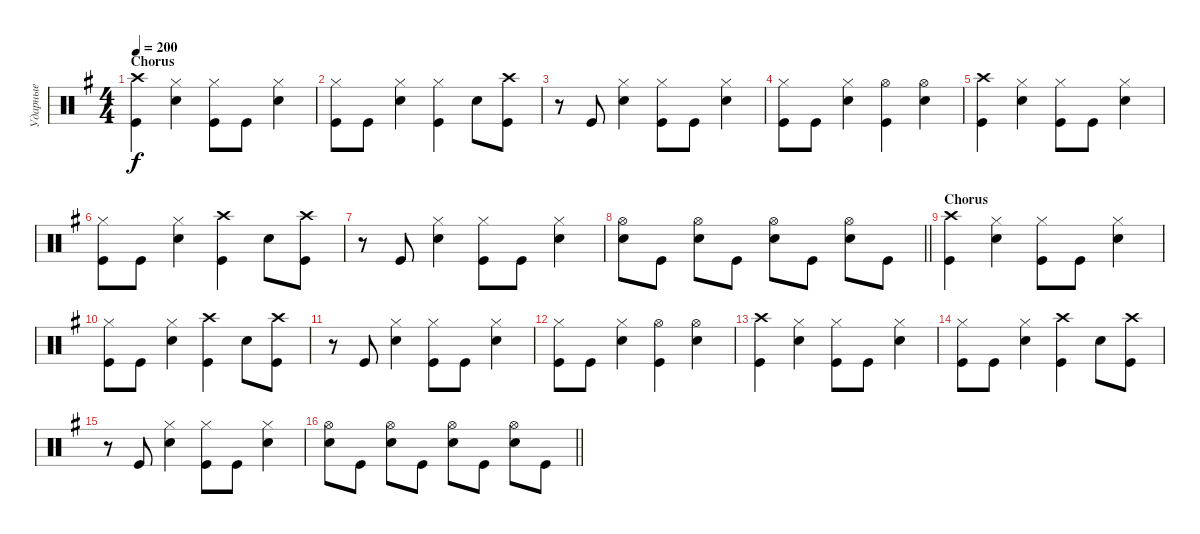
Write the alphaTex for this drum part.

\track ("Ударные" "Ударные") {instrument percussion}
\staff {score}
\articulation defaults
\ts (4 4)
\section ("" "Chorus")
\tempo 200
\clef neutral
\ks eminor
("Kick (hit)" "Crash high (hit)").4{dy f} ("Snare (hit) 2" "Hi-Hat (closed)").4 ("Kick (hit)" "Hi-Hat (closed)").8 "Kick (hit)".8 ("Snare (hit) 2" "Hi-Hat (closed)").4 |
("Kick (hit)" "Hi-Hat (closed)").8 "Kick (hit)".8 ("Snare (hit) 2" "Hi-Hat (closed)").4 ("Kick (hit)" "Hi-Hat (closed)").4 "Snare (hit) 2".8 ("Crash high (hit)" "Kick (hit)").8 |
r.8 "Kick (hit)".8 ("Snare (hit) 2" "Hi-Hat (closed)").4 ("Kick (hit)" "Hi-Hat (closed)").8 "Kick (hit)".8 ("Snare (hit) 2" "Hi-Hat (closed)").4 |
("Kick (hit)" "Hi-Hat (closed)").8 "Kick (hit)".8 ("Snare (hit) 2" "Hi-Hat (closed)").4 ("Kick (hit)" "Hi-Hat (open)").4 ("Snare (hit) 2" "Hi-Hat (open)").4 |
("Kick (hit)" "Crash high (hit)").4 ("Snare (hit) 2" "Hi-Hat (closed)").4 ("Kick (hit)" "Hi-Hat (closed)").8 "Kick (hit)".8 ("Snare (hit) 2" "Hi-Hat (closed)").4 |
("Kick (hit)" "Hi-Hat (closed)").8 "Kick (hit)".8 ("Snare (hit) 2" "Hi-Hat (closed)").4 ("Kick (hit)" "Crash high (hit)").4 "Snare (hit) 2".8 ("Crash high (hit)" "Kick (hit)").8 |
r.8 "Kick (hit)".8 ("Snare (hit) 2" "Hi-Hat (closed)").4 ("Kick (hit)" "Hi-Hat (closed)").8 "Kick (hit)".8 ("Snare (hit) 2" "Hi-Hat (closed)").4 |
\barLineRight lightlight
("Snare (hit) 2" "Hi-Hat (open)").8 "Kick (hit)".8 ("Snare (hit) 2" "Hi-Hat (open)").8 "Kick (hit)".8 ("Snare (hit) 2" "Hi-Hat (open)").8 "Kick (hit)".8 ("Snare (hit) 2" "Hi-Hat (open)").8 "Kick (hit)".8 |
\section ("" "Chorus")
("Kick (hit)" "Crash high (hit)").4 ("Snare (hit) 2" "Hi-Hat (closed)").4 ("Kick (hit)" "Hi-Hat (closed)").8 "Kick (hit)".8 ("Snare (hit) 2" "Hi-Hat (closed)").4 |
("Kick (hit)" "Hi-Hat (closed)").8 "Kick (hit)".8 ("Snare (hit) 2" "Hi-Hat (closed)").4 ("Kick (hit)" "Crash high (hit)").4 "Snare (hit) 2".8 ("Crash high (hit)" "Kick (hit)").8 |
r.8 "Kick (hit)".8 ("Snare (hit) 2" "Hi-Hat (closed)").4 ("Kick (hit)" "Hi-Hat (closed)").8 "Kick (hit)".8 ("Snare (hit) 2" "Hi-Hat (closed)").4 |
("Kick (hit)" "Hi-Hat (closed)").8 "Kick (hit)".8 ("Snare (hit) 2" "Hi-Hat (closed)").4 ("Kick (hit)" "Hi-Hat (open)").4 ("Snare (hit) 2" "Hi-Hat (open)").4 |
("Kick (hit)" "Crash high (hit)").4 ("Snare (hit) 2" "Hi-Hat (closed)").4 ("Kick (hit)" "Hi-Hat (closed)").8 "Kick (hit)".8 ("Snare (hit) 2" "Hi-Hat (closed)").4 |
("Kick (hit)" "Hi-Hat (closed)").8 "Kick (hit)".8 ("Snare (hit) 2" "Hi-Hat (closed)").4 ("Kick (hit)" "Crash high (hit)").4 "Snare (hit) 2".8 ("Crash high (hit)" "Kick (hit)").8 |
r.8 "Kick (hit)".8 ("Snare (hit) 2" "Hi-Hat (closed)").4 ("Kick (hit)" "Hi-Hat (closed)").8 "Kick (hit)".8 ("Snare (hit) 2" "Hi-Hat (closed)").4 |
\barLineRight lightlight
("Snare (hit) 2" "Hi-Hat (open)").8 "Kick (hit)".8 ("Snare (hit) 2" "Hi-Hat (open)").8 "Kick (hit)".8 ("Snare (hit) 2" "Hi-Hat (open)").8 "Kick (hit)".8 ("Snare (hit) 2" "Hi-Hat (open)").8 "Kick (hit)".8
